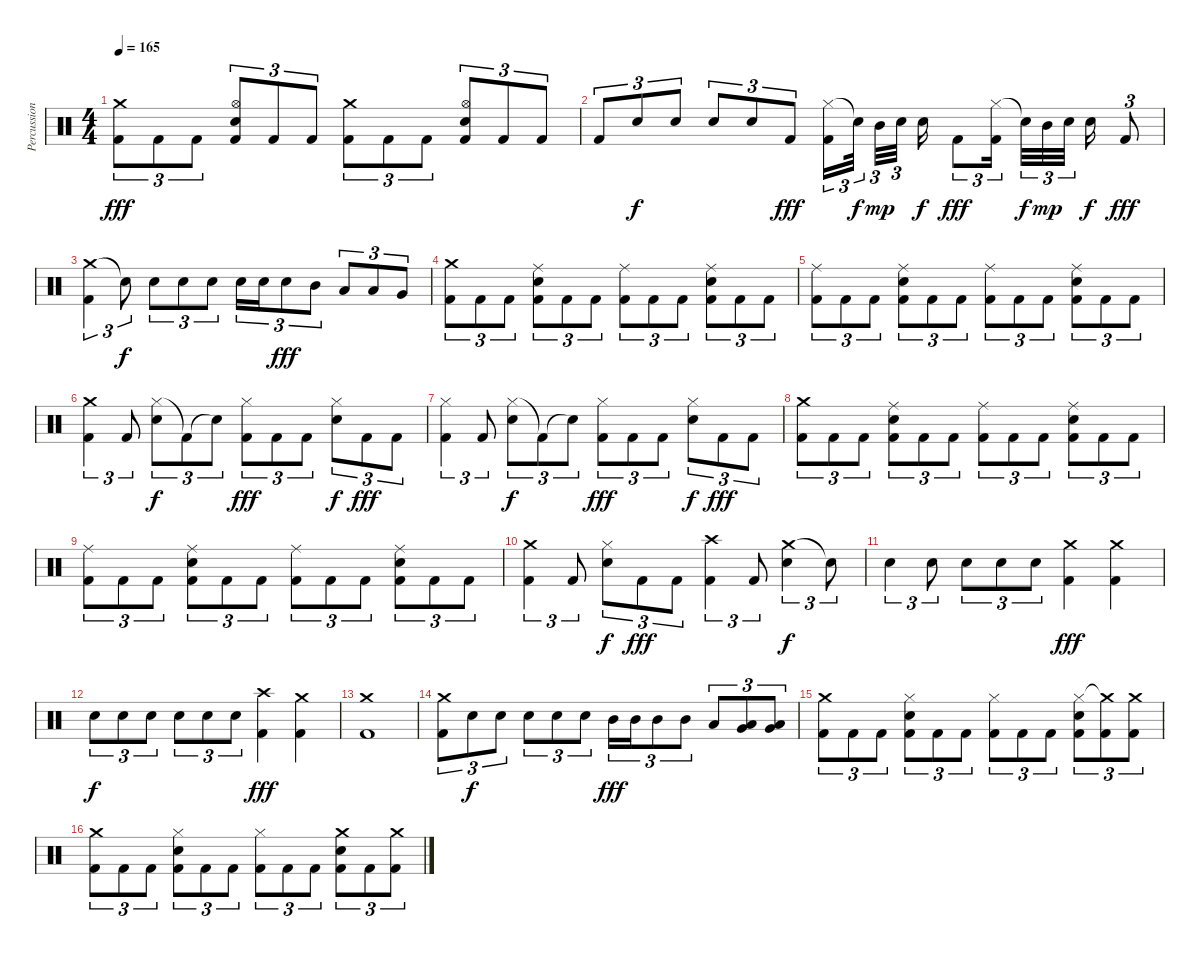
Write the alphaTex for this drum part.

\track ("Percussion" "Percussion") {instrument percussion}
\staff {score}
\articulation defaults
\ts (4 4)
\tempo 165
\clef neutral
\ks c
("Crash medium (hit)" "Kick (hit) 2").8{tu (3 2) dy fff} "Kick (hit) 2".8{tu (3 2)} "Kick (hit) 2".8{tu (3 2)} ("Hi-Hat (open)" "Electric Snare (hit)" "Kick (hit) 2").8{tu (3 2)} "Kick (hit) 2".8{tu (3 2)} "Kick (hit) 2".8{tu (3 2)} ("Crash medium (hit)" "Kick (hit) 2").8{tu (3 2)} "Kick (hit) 2".8{tu (3 2)} "Kick (hit) 2".8{tu (3 2)} ("Hi-Hat (open)" "Electric Snare (hit)" "Kick (hit) 2").8{tu (3 2)} "Kick (hit) 2".8{tu (3 2)} "Kick (hit) 2".8{tu (3 2)} |
"Kick (hit) 2".8{tu (3 2)} "Electric Snare (hit)".8{tu (3 2) dy f} "Electric Snare (hit)".8{tu (3 2)} "Electric Snare (hit)".8{tu (3 2)} "Electric Snare (hit)".8{tu (3 2)} "Kick (hit) 2".8{tu (3 2) dy fff} ("Hi-Hat (closed)" "Kick (hit) 2").16{tu (3 2)} "Snare (hit)"{t}.32{tu (3 2) dy f} "Mid Tom (hit)".32{tu (3 2) dy mp} "Electric Snare (hit)".32{tu (3 2)} "Electric Snare (hit)".16{dy f} "Kick (hit) 2".8{tu (3 2) dy fff} ("Hi-Hat (closed)" "Kick (hit) 2").16{tu (3 2)} "Snare (hit)"{t}.32{tu (3 2) dy f} "Mid Tom (hit)".32{tu (3 2) dy mp} "Electric Snare (hit)".32{tu (3 2)} "Electric Snare (hit)".16{dy f} "Kick (hit) 2".8{tu (3 2) dy fff} |
("Crash medium (hit)" "Kick (hit) 2").4{tu (3 2)} "Snare (hit)"{t}.8{tu (3 2) dy f} "Electric Snare (hit)".8{tu (3 2)} "Electric Snare (hit)".8{tu (3 2)} "Electric Snare (hit)".8{tu (3 2)} "Electric Snare (hit)".16{tu (3 2)} "Electric Snare (hit)".16{tu (3 2)} "Electric Snare (hit)".8{tu (3 2) dy fff} "Mid Tom (hit)".8{tu (3 2)} "Low Tom (hit)".8{tu (3 2)} "Low Tom (hit)".8{tu (3 2)} "Very Low Tom (hit)".8{tu (3 2)} |
("Crash medium (hit)" "Kick (hit) 2").8{tu (3 2)} "Kick (hit) 2".8{tu (3 2)} "Kick (hit) 2".8{tu (3 2)} ("Ride (middle)" "Electric Snare (hit)" "Kick (hit) 2").8{tu (3 2)} "Kick (hit) 2".8{tu (3 2)} "Kick (hit) 2".8{tu (3 2)} ("Ride (middle)" "Kick (hit) 2").8{tu (3 2)} "Kick (hit) 2".8{tu (3 2)} "Kick (hit) 2".8{tu (3 2)} ("Ride (middle)" "Electric Snare (hit)" "Kick (hit) 2").8{tu (3 2)} "Kick (hit) 2".8{tu (3 2)} "Kick (hit) 2".8{tu (3 2)} |
("Ride (middle)" "Kick (hit) 2").8{tu (3 2)} "Kick (hit) 2".8{tu (3 2)} "Kick (hit) 2".8{tu (3 2)} ("Ride (middle)" "Electric Snare (hit)" "Kick (hit) 2").8{tu (3 2)} "Kick (hit) 2".8{tu (3 2)} "Kick (hit) 2".8{tu (3 2)} ("Ride (middle)" "Kick (hit) 2").8{tu (3 2)} "Kick (hit) 2".8{tu (3 2)} "Kick (hit) 2".8{tu (3 2)} ("Ride (middle)" "Electric Snare (hit)" "Kick (hit) 2").8{tu (3 2)} "Kick (hit) 2".8{tu (3 2)} "Kick (hit) 2".8{tu (3 2)} |
("Crash medium (hit)" "Kick (hit) 2").4{tu (3 2)} "Kick (hit) 2".8{tu (3 2)} ("Hi-Hat (closed)" "Electric Snare (hit)").8{tu (3 2) dy f} "Kick (hit) 2"{t}.8{tu (3 2)} "Snare (hit)"{t}.8{tu (3 2)} ("Hi-Hat (closed)" "Kick (hit) 2").8{tu (3 2) dy fff} "Kick (hit) 2".8{tu (3 2)} "Kick (hit) 2".8{tu (3 2)} ("Hi-Hat (closed)" "Electric Snare (hit)").8{tu (3 2) dy f} "Kick (hit) 2".8{tu (3 2) dy fff} "Kick (hit) 2".8{tu (3 2)} |
("Hi-Hat (closed)" "Kick (hit) 2").4{tu (3 2)} "Kick (hit) 2".8{tu (3 2)} ("Hi-Hat (closed)" "Electric Snare (hit)").8{tu (3 2) dy f} "Kick (hit) 2"{t}.8{tu (3 2)} "Snare (hit)"{t}.8{tu (3 2)} ("Hi-Hat (closed)" "Kick (hit) 2").8{tu (3 2) dy fff} "Kick (hit) 2".8{tu (3 2)} "Kick (hit) 2".8{tu (3 2)} ("Hi-Hat (closed)" "Electric Snare (hit)").8{tu (3 2) dy f} "Kick (hit) 2".8{tu (3 2) dy fff} "Kick (hit) 2".8{tu (3 2)} |
("Crash medium (hit)" "Kick (hit) 2").8{tu (3 2)} "Kick (hit) 2".8{tu (3 2)} "Kick (hit) 2".8{tu (3 2)} ("Ride (middle)" "Electric Snare (hit)" "Kick (hit) 2").8{tu (3 2)} "Kick (hit) 2".8{tu (3 2)} "Kick (hit) 2".8{tu (3 2)} ("Ride (middle)" "Kick (hit) 2").8{tu (3 2)} "Kick (hit) 2".8{tu (3 2)} "Kick (hit) 2".8{tu (3 2)} ("Ride (middle)" "Electric Snare (hit)" "Kick (hit) 2").8{tu (3 2)} "Kick (hit) 2".8{tu (3 2)} "Kick (hit) 2".8{tu (3 2)} |
("Ride (middle)" "Kick (hit) 2").8{tu (3 2)} "Kick (hit) 2".8{tu (3 2)} "Kick (hit) 2".8{tu (3 2)} ("Ride (middle)" "Electric Snare (hit)" "Kick (hit) 2").8{tu (3 2)} "Kick (hit) 2".8{tu (3 2)} "Kick (hit) 2".8{tu (3 2)} ("Ride (middle)" "Kick (hit) 2").8{tu (3 2)} "Kick (hit) 2".8{tu (3 2)} "Kick (hit) 2".8{tu (3 2)} ("Ride (middle)" "Electric Snare (hit)" "Kick (hit) 2").8{tu (3 2)} "Kick (hit) 2".8{tu (3 2)} "Kick (hit) 2".8{tu (3 2)} |
("Crash medium (hit)" "Kick (hit) 2").4{tu (3 2)} "Kick (hit) 2".8{tu (3 2)} ("Hi-Hat (closed)" "Electric Snare (hit)").8{tu (3 2) dy f} "Kick (hit) 2".8{tu (3 2) dy fff} "Kick (hit) 2".8{tu (3 2)} ("Crash high (hit)" "Kick (hit) 2").4{tu (3 2)} "Kick (hit) 2".8{tu (3 2)} ("Crash medium (hit)" "Electric Snare (hit)").4{tu (3 2) dy f} "Snare (hit)"{t}.8{tu (3 2)} |
"Electric Snare (hit)".4{tu (3 2)} "Electric Snare (hit)".8{tu (3 2)} "Electric Snare (hit)".8{tu (3 2)} "Electric Snare (hit)".8{tu (3 2)} "Electric Snare (hit)".8{tu (3 2)} ("Crash medium (hit)" "Kick (hit) 2").4{dy fff} ("Crash medium (hit)" "Kick (hit) 2").4 |
"Electric Snare (hit)".8{tu (3 2) dy f} "Electric Snare (hit)".8{tu (3 2)} "Electric Snare (hit)".8{tu (3 2)} "Electric Snare (hit)".8{tu (3 2)} "Electric Snare (hit)".8{tu (3 2)} "Electric Snare (hit)".8{tu (3 2)} ("Crash high (hit)" "Kick (hit) 2").4{dy fff} ("Crash medium (hit)" "Kick (hit) 2").4 |
("Crash medium (hit)" "Kick (hit) 2").1 |
("Crash medium (hit)" "Kick (hit) 2").8{tu (3 2)} "Electric Snare (hit)".8{tu (3 2) dy f} "Electric Snare (hit)".8{tu (3 2)} "Electric Snare (hit)".8{tu (3 2)} "Electric Snare (hit)".8{tu (3 2)} "Electric Snare (hit)".8{tu (3 2)} "Mid Tom (hit)".16{tu (3 2) dy fff} "Mid Tom (hit)".16{tu (3 2)} "Mid Tom (hit)".8{tu (3 2)} "Mid Tom (hit)".8{tu (3 2)} "Low Tom (hit)".8{tu (3 2)} ("Very Low Tom (hit)" "Low Tom (hit)").8{tu (3 2)} ("Very Low Tom (hit)" "Low Tom (hit)").8{tu (3 2)} |
("Crash medium (hit)" "Kick (hit) 2").8{tu (3 2)} "Kick (hit) 2".8{tu (3 2)} "Kick (hit) 2".8{tu (3 2)} ("Hi-Hat (closed)" "Electric Snare (hit)" "Kick (hit) 2").8{tu (3 2)} "Kick (hit) 2".8{tu (3 2)} "Kick (hit) 2".8{tu (3 2)} ("Hi-Hat (closed)" "Kick (hit) 2").8{tu (3 2)} "Kick (hit) 2".8{tu (3 2)} "Kick (hit) 2".8{tu (3 2)} ("Hi-Hat (closed)" "Electric Snare (hit)" "Kick (hit) 2").8{tu (3 2)} ("Crash medium (hit)"{t} "Kick (hit) 2").8{tu (3 2)} ("Crash medium (hit)" "Kick (hit) 2").8{tu (3 2)} |
("Crash medium (hit)" "Kick (hit) 2").8{tu (3 2)} "Kick (hit) 2".8{tu (3 2)} "Kick (hit) 2".8{tu (3 2)} ("Hi-Hat (closed)" "Electric Snare (hit)" "Kick (hit) 2").8{tu (3 2)} "Kick (hit) 2".8{tu (3 2)} "Kick (hit) 2".8{tu (3 2)} ("Hi-Hat (closed)" "Kick (hit) 2").8{tu (3 2)} "Kick (hit) 2".8{tu (3 2)} "Kick (hit) 2".8{tu (3 2)} ("Crash medium (hit)" "Electric Snare (hit)" "Kick (hit) 2").8{tu (3 2)} "Kick (hit) 2".8{tu (3 2)} ("Crash medium (hit)" "Kick (hit) 2").8{tu (3 2)}
